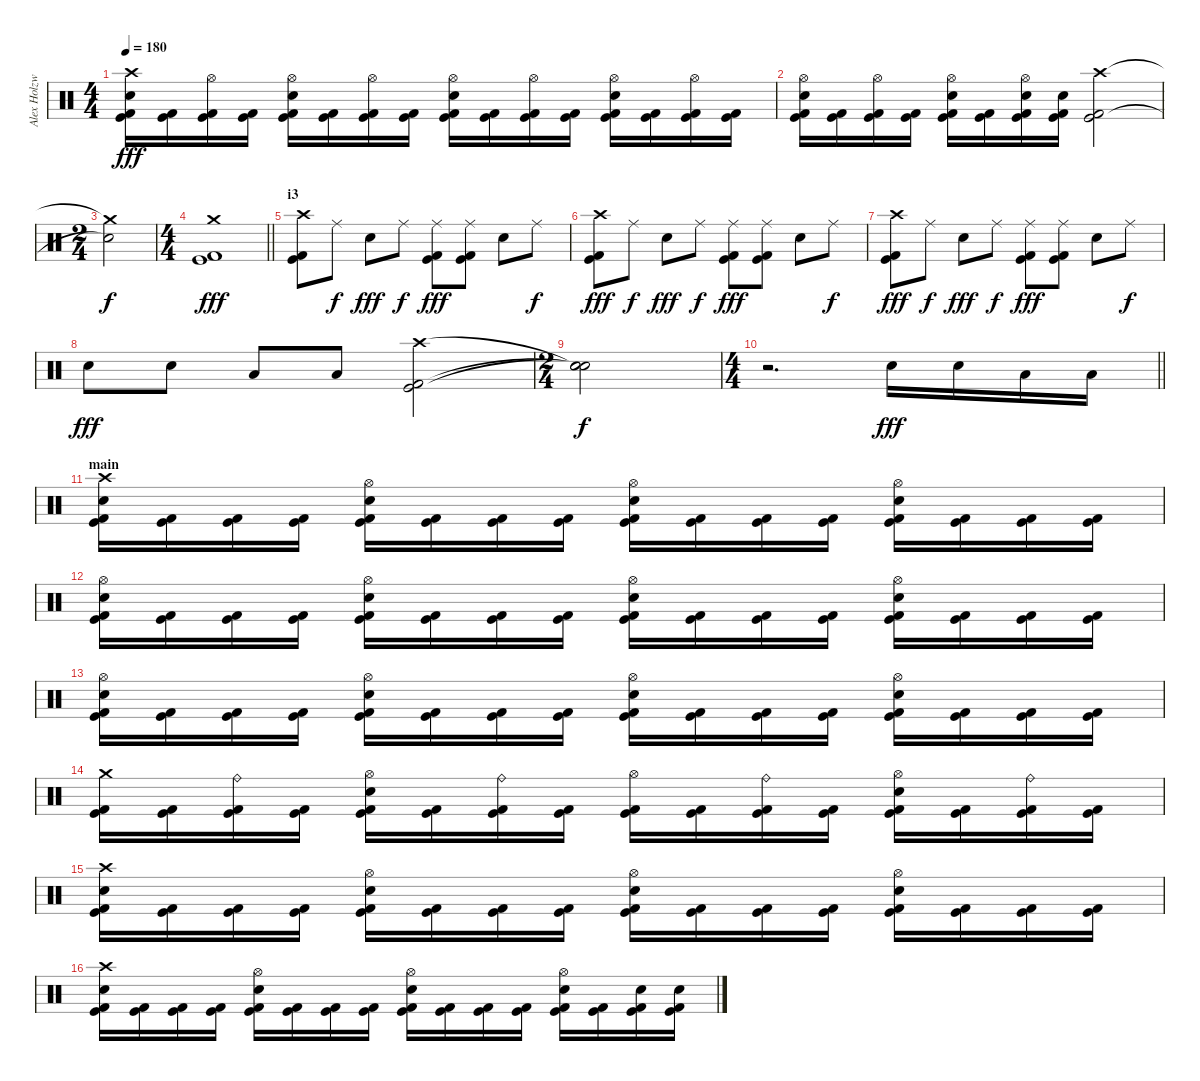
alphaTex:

\track ("Alex Holzwarth" "Alex Holzw") {instrument percussion}
\staff {score}
\articulation defaults
\ts (4 4)
\tempo 180
\clef neutral
\ks c
("Crash high (hit)" "Snare (hit) 2" "Kick (hit)" "Kick (hit) 2").16{dy fff} ("Kick (hit)" "Kick (hit) 2").16 ("Hi-Hat (open)" "Kick (hit)" "Kick (hit) 2").16 ("Kick (hit)" "Kick (hit) 2").16 ("Hi-Hat (open)" "Snare (hit) 2" "Kick (hit)" "Kick (hit) 2").16 ("Kick (hit)" "Kick (hit) 2").16 ("Hi-Hat (open)" "Kick (hit)" "Kick (hit) 2").16 ("Kick (hit)" "Kick (hit) 2").16 ("Hi-Hat (open)" "Snare (hit) 2" "Kick (hit)" "Kick (hit) 2").16 ("Kick (hit)" "Kick (hit) 2").16 ("Hi-Hat (open)" "Kick (hit)" "Kick (hit) 2").16 ("Kick (hit)" "Kick (hit) 2").16 ("Hi-Hat (open)" "Snare (hit) 2" "Kick (hit)" "Kick (hit) 2").16 ("Kick (hit)" "Kick (hit) 2").16 ("Hi-Hat (open)" "Kick (hit)" "Kick (hit) 2").16 ("Kick (hit)" "Kick (hit) 2").16 |
("Hi-Hat (open)" "Snare (hit) 2" "Kick (hit)" "Kick (hit) 2").16 ("Kick (hit)" "Kick (hit) 2").16 ("Hi-Hat (open)" "Kick (hit)" "Kick (hit) 2").16 ("Kick (hit)" "Kick (hit) 2").16 ("Hi-Hat (open)" "Snare (hit) 2" "Kick (hit)" "Kick (hit) 2").16 ("Kick (hit)" "Kick (hit) 2").16 ("Hi-Hat (open)" "Snare (hit) 2" "Kick (hit)" "Kick (hit) 2").16 ("Snare (hit) 2" "Kick (hit)" "Kick (hit) 2").16 ("Crash high (hit)" "Kick (hit)" "Kick (hit) 2").2 |
\ts (2 4)
("Crash medium (hit)"{t} "Snare (hit)"{t}).2{dy f} |
\ts (4 4)
\barLineRight lightlight
("Crash medium (hit)" "Kick (hit)" "Kick (hit) 2").1{dy fff} |
\section ("" "i3")
("Crash high (hit)" "Kick (hit)" "Kick (hit) 2").8 "Ride (middle)".8{dy f} "Snare (hit) 2".8{dy fff} "Ride (middle)".8{dy f} ("Ride (middle)" "Kick (hit)" "Kick (hit) 2").8{dy fff} ("Ride (middle)" "Kick (hit)" "Kick (hit) 2").8 "Snare (hit) 2".8 "Ride (middle)".8{dy f} |
("Crash high (hit)" "Kick (hit)" "Kick (hit) 2").8{dy fff} "Ride (middle)".8{dy f} "Snare (hit) 2".8{dy fff} "Ride (middle)".8{dy f} ("Ride (middle)" "Kick (hit)" "Kick (hit) 2").8{dy fff} ("Ride (middle)" "Kick (hit)" "Kick (hit) 2").8 "Snare (hit) 2".8 "Ride (middle)".8{dy f} |
("Crash high (hit)" "Kick (hit)" "Kick (hit) 2").8{dy fff} "Ride (middle)".8{dy f} "Snare (hit) 2".8{dy fff} "Ride (middle)".8{dy f} ("Ride (middle)" "Kick (hit)" "Kick (hit) 2").8{dy fff} ("Ride (middle)" "Kick (hit)" "Kick (hit) 2").8 "Snare (hit) 2".8 "Ride (middle)".8{dy f} |
"Snare (hit) 2".8{dy fff} "Snare (hit) 2".8 "Low Tom (hit)".8 "Low Tom (hit)".8 ("Crash high (hit)" "Kick (hit)" "Kick (hit) 2").2 |
\ts (2 4)
("Snare (hit)"{t} "Snare (hit)"{t} "Snare (hit)"{t}).2{dy f} |
\ts (4 4)
\barLineRight lightlight
r.2{d} "Snare (hit) 2".16{dy fff} "Snare (hit) 2".16 "Low Tom (hit)".16 "Low Tom (hit)".16 |
\section ("" "main")
("Crash high (hit)" "Snare (hit) 2" "Kick (hit)" "Kick (hit) 2").16 ("Kick (hit)" "Kick (hit) 2").16 ("Kick (hit)" "Kick (hit) 2").16 ("Kick (hit)" "Kick (hit) 2").16 ("Hi-Hat (open)" "Snare (hit) 2" "Kick (hit)" "Kick (hit) 2").16 ("Kick (hit)" "Kick (hit) 2").16 ("Kick (hit)" "Kick (hit) 2").16 ("Kick (hit)" "Kick (hit) 2").16 ("Hi-Hat (open)" "Snare (hit) 2" "Kick (hit)" "Kick (hit) 2").16 ("Kick (hit)" "Kick (hit) 2").16 ("Kick (hit)" "Kick (hit) 2").16 ("Kick (hit)" "Kick (hit) 2").16 ("Hi-Hat (open)" "Snare (hit) 2" "Kick (hit)" "Kick (hit) 2").16 ("Kick (hit)" "Kick (hit) 2").16 ("Kick (hit)" "Kick (hit) 2").16 ("Kick (hit)" "Kick (hit) 2").16 |
("Hi-Hat (open)" "Snare (hit) 2" "Kick (hit)" "Kick (hit) 2").16 ("Kick (hit)" "Kick (hit) 2").16 ("Kick (hit)" "Kick (hit) 2").16 ("Kick (hit)" "Kick (hit) 2").16 ("Hi-Hat (open)" "Snare (hit) 2" "Kick (hit)" "Kick (hit) 2").16 ("Kick (hit)" "Kick (hit) 2").16 ("Kick (hit)" "Kick (hit) 2").16 ("Kick (hit)" "Kick (hit) 2").16 ("Hi-Hat (open)" "Snare (hit) 2" "Kick (hit)" "Kick (hit) 2").16 ("Kick (hit)" "Kick (hit) 2").16 ("Kick (hit)" "Kick (hit) 2").16 ("Kick (hit)" "Kick (hit) 2").16 ("Hi-Hat (open)" "Snare (hit) 2" "Kick (hit)" "Kick (hit) 2").16 ("Kick (hit)" "Kick (hit) 2").16 ("Kick (hit)" "Kick (hit) 2").16 ("Kick (hit)" "Kick (hit) 2").16 |
("Hi-Hat (open)" "Snare (hit) 2" "Kick (hit)" "Kick (hit) 2").16 ("Kick (hit)" "Kick (hit) 2").16 ("Kick (hit)" "Kick (hit) 2").16 ("Kick (hit)" "Kick (hit) 2").16 ("Hi-Hat (open)" "Snare (hit) 2" "Kick (hit)" "Kick (hit) 2").16 ("Kick (hit)" "Kick (hit) 2").16 ("Kick (hit)" "Kick (hit) 2").16 ("Kick (hit)" "Kick (hit) 2").16 ("Hi-Hat (open)" "Snare (hit) 2" "Kick (hit)" "Kick (hit) 2").16 ("Kick (hit)" "Kick (hit) 2").16 ("Kick (hit)" "Kick (hit) 2").16 ("Kick (hit)" "Kick (hit) 2").16 ("Hi-Hat (open)" "Snare (hit) 2" "Kick (hit)" "Kick (hit) 2").16 ("Kick (hit)" "Kick (hit) 2").16 ("Kick (hit)" "Kick (hit) 2").16 ("Kick (hit)" "Kick (hit) 2").16 |
("Crash medium (hit)" "Kick (hit)" "Kick (hit) 2").16 ("Kick (hit)" "Kick (hit) 2").16 ("Ride (bell)" "Kick (hit)" "Kick (hit) 2").16 ("Kick (hit)" "Kick (hit) 2").16 ("Hi-Hat (open)" "Snare (hit) 2" "Kick (hit)" "Kick (hit) 2").16 ("Kick (hit)" "Kick (hit) 2").16 ("Ride (bell)" "Kick (hit)" "Kick (hit) 2").16 ("Kick (hit)" "Kick (hit) 2").16 ("Hi-Hat (open)" "Kick (hit)" "Kick (hit) 2").16 ("Kick (hit)" "Kick (hit) 2").16 ("Ride (bell)" "Kick (hit)" "Kick (hit) 2").16 ("Kick (hit)" "Kick (hit) 2").16 ("Hi-Hat (open)" "Snare (hit) 2" "Kick (hit)" "Kick (hit) 2").16 ("Kick (hit)" "Kick (hit) 2").16 ("Ride (bell)" "Kick (hit)" "Kick (hit) 2").16 ("Kick (hit)" "Kick (hit) 2").16 |
("Crash high (hit)" "Snare (hit) 2" "Kick (hit)" "Kick (hit) 2").16 ("Kick (hit)" "Kick (hit) 2").16 ("Kick (hit)" "Kick (hit) 2").16 ("Kick (hit)" "Kick (hit) 2").16 ("Hi-Hat (open)" "Snare (hit) 2" "Kick (hit)" "Kick (hit) 2").16 ("Kick (hit)" "Kick (hit) 2").16 ("Kick (hit)" "Kick (hit) 2").16 ("Kick (hit)" "Kick (hit) 2").16 ("Hi-Hat (open)" "Snare (hit) 2" "Kick (hit)" "Kick (hit) 2").16 ("Kick (hit)" "Kick (hit) 2").16 ("Kick (hit)" "Kick (hit) 2").16 ("Kick (hit)" "Kick (hit) 2").16 ("Hi-Hat (open)" "Snare (hit) 2" "Kick (hit)" "Kick (hit) 2").16 ("Kick (hit)" "Kick (hit) 2").16 ("Kick (hit)" "Kick (hit) 2").16 ("Kick (hit)" "Kick (hit) 2").16 |
("Crash high (hit)" "Snare (hit) 2" "Kick (hit)" "Kick (hit) 2").16 ("Kick (hit)" "Kick (hit) 2").16 ("Kick (hit)" "Kick (hit) 2").16 ("Kick (hit)" "Kick (hit) 2").16 ("Hi-Hat (open)" "Snare (hit) 2" "Kick (hit)" "Kick (hit) 2").16 ("Kick (hit)" "Kick (hit) 2").16 ("Kick (hit)" "Kick (hit) 2").16 ("Kick (hit)" "Kick (hit) 2").16 ("Hi-Hat (open)" "Snare (hit) 2" "Kick (hit)" "Kick (hit) 2").16 ("Kick (hit)" "Kick (hit) 2").16 ("Kick (hit)" "Kick (hit) 2").16 ("Kick (hit)" "Kick (hit) 2").16 ("Hi-Hat (open)" "Snare (hit) 2" "Kick (hit)" "Kick (hit) 2").16 ("Kick (hit)" "Kick (hit) 2").16 ("Snare (hit) 2" "Kick (hit)" "Kick (hit) 2").16 ("Snare (hit) 2" "Kick (hit)" "Kick (hit) 2").16
